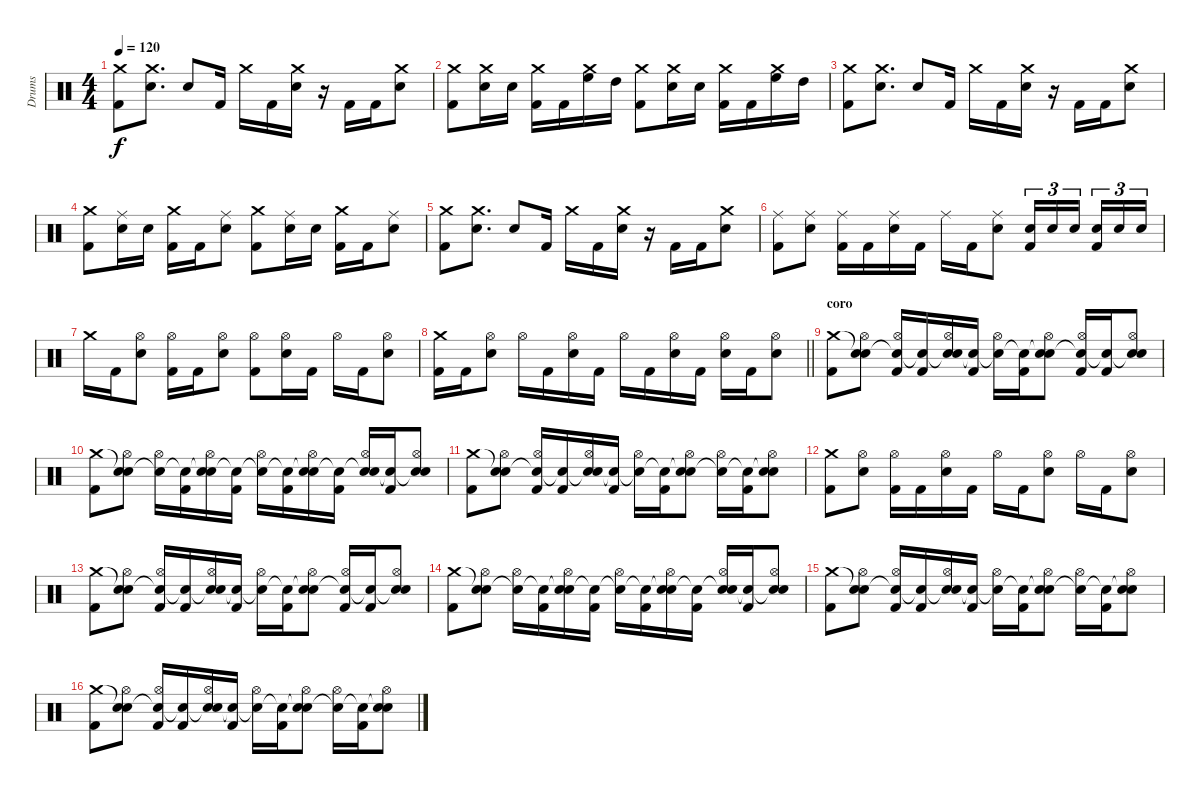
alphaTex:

\track ("Drums" "Drums") {instrument percussion}
\staff {score}
\articulation defaults
\ts (4 4)
\tempo 120
\clef neutral
\ks c
("Crash medium (hit)" "Kick (hit) 2").8{dy f} ("Crash medium (hit)" "Electric Snare (hit)").8{d} "Electric Snare (hit)".8 "Kick (hit) 2".16 "Crash medium (hit)".16 "Kick (hit) 2".16 ("Crash medium (hit)" "Electric Snare (hit)").16 r.16 "Kick (hit) 2".16 "Kick (hit) 2".16 ("Crash medium (hit)" "Electric Snare (hit)").8 |
("Crash medium (hit)" "Kick (hit) 2").8 ("Crash medium (hit)" "Electric Snare (hit)").16 "Electric Snare (hit)".16 ("Crash medium (hit)" "Kick (hit) 2").16 "Kick (hit) 2".16 ("Crash medium (hit)" "High Floor Tom (hit)").16 "High Tom (hit)".16 ("Crash medium (hit)" "Kick (hit) 2").8 ("Crash medium (hit)" "Electric Snare (hit)").16 "Electric Snare (hit)".16 ("Crash medium (hit)" "Kick (hit) 2").16 "Kick (hit) 2".16 ("Crash medium (hit)" "High Floor Tom (hit)").16 "High Tom (hit)".16 |
("Crash medium (hit)" "Kick (hit) 2").8 ("Crash medium (hit)" "Electric Snare (hit)").8{d} "Electric Snare (hit)".8 "Kick (hit) 2".16 "Crash medium (hit)".16 "Kick (hit) 2".16 ("Crash medium (hit)" "Electric Snare (hit)").16 r.16 "Kick (hit) 2".16 "Kick (hit) 2".16 ("Crash medium (hit)" "Electric Snare (hit)").8 |
("Crash medium (hit)" "Kick (hit) 2").8 ("Ride (middle)" "Electric Snare (hit)").16 "Electric Snare (hit)".16 ("Crash medium (hit)" "Kick (hit) 2").16 "Kick (hit) 2".16 ("Ride (middle)" "Electric Snare (hit)").8 ("Crash medium (hit)" "Kick (hit) 2").8 ("Ride (middle)" "Electric Snare (hit)").16 "Electric Snare (hit)".16 ("Crash medium (hit)" "Kick (hit) 2").16 "Kick (hit) 2".16 ("Ride (middle)" "Electric Snare (hit)").8 |
("Crash medium (hit)" "Kick (hit) 2").8 ("Crash medium (hit)" "Electric Snare (hit)").8{d} "Electric Snare (hit)".8 "Kick (hit) 2".16 "Crash medium (hit)".16 "Kick (hit) 2".16 ("Crash medium (hit)" "Electric Snare (hit)").16 r.16 "Kick (hit) 2".16 "Kick (hit) 2".16 ("Crash medium (hit)" "Electric Snare (hit)").8 |
("Ride (middle)" "Kick (hit) 2").8 ("Ride (middle)" "Electric Snare (hit)").8 ("Ride (middle)" "Kick (hit) 2").16 "Kick (hit) 2".16 ("Ride (middle)" "Electric Snare (hit)").16 "Kick (hit) 2".16 "Ride (middle)".16 "Kick (hit) 2".16 ("Ride (middle)" "Electric Snare (hit)").8 ("Electric Snare (hit)" "Kick (hit) 2").16{tu (3 2)} "Electric Snare (hit)".16{tu (3 2)} "Electric Snare (hit)".16{tu (3 2)} ("Electric Snare (hit)" "Kick (hit) 2").16{tu (3 2)} "Electric Snare (hit)".16{tu (3 2)} "Electric Snare (hit)".16{tu (3 2)} |
"Crash medium (hit)".16 "Kick (hit) 2".16 ("Hi-Hat (open)" "Electric Snare (hit)").8 ("Hi-Hat (open)" "Kick (hit) 2").16 "Kick (hit) 2".16 ("Hi-Hat (open)" "Electric Snare (hit)").8 ("Hi-Hat (open)" "Kick (hit) 2").8 ("Hi-Hat (open)" "Electric Snare (hit)").16 "Kick (hit) 2".16 "Hi-Hat (open)".16 "Kick (hit) 2".16 ("Hi-Hat (open)" "Electric Snare (hit)").8 |
\barLineRight lightlight
("Crash medium (hit)" "Kick (hit) 2").16 "Kick (hit) 2".16 ("Hi-Hat (open)" "Electric Snare (hit)").8 "Hi-Hat (open)".16 "Kick (hit) 2".16 ("Hi-Hat (open)" "Electric Snare (hit)").16 "Kick (hit) 2".16 "Hi-Hat (open)".16 "Kick (hit) 2".16 ("Hi-Hat (open)" "Electric Snare (hit)").16 "Kick (hit) 2".16 ("Hi-Hat (open)" "Electric Snare (hit)").16 "Kick (hit) 2".16 ("Hi-Hat (open)" "Electric Snare (hit)").8 |
\section ("" "coro")
("Crash medium (hit)" "Kick (hit) 2").8 ("Snare (hit)"{t} "Hi-Hat (open)" "Electric Snare (hit)").8 ("Snare (hit)"{t} "Hi-Hat (open)" "Kick (hit) 2").16 ("Snare (hit)"{t} "Kick (hit) 2").16 ("Snare (hit)"{t} "Hi-Hat (open)" "Electric Snare (hit)").16 ("Snare (hit)"{t} "Kick (hit) 2").16 ("Snare (hit)"{t} "Hi-Hat (open)").16 ("Snare (hit)"{t} "Kick (hit) 2").16 ("Snare (hit)"{t} "Hi-Hat (open)" "Electric Snare (hit)").8 ("Snare (hit)"{t} "Hi-Hat (open)" "Kick (hit) 2").16 ("Snare (hit)"{t} "Kick (hit) 2").16 ("Snare (hit)"{t} "Hi-Hat (open)" "Electric Snare (hit)").8 |
("Crash medium (hit)" "Kick (hit) 2").8 ("Snare (hit)"{t} "Hi-Hat (open)" "Electric Snare (hit)").8 ("Snare (hit)"{t} "Hi-Hat (open)").16 ("Snare (hit)"{t} "Kick (hit) 2").16 ("Snare (hit)"{t} "Hi-Hat (open)" "Electric Snare (hit)").16 ("Snare (hit)"{t} "Kick (hit) 2").16 ("Snare (hit)"{t} "Hi-Hat (open)").16 ("Snare (hit)"{t} "Kick (hit) 2").16 ("Snare (hit)"{t} "Hi-Hat (open)" "Electric Snare (hit)").16 ("Snare (hit)"{t} "Kick (hit) 2").16 ("Snare (hit)"{t} "Hi-Hat (open)" "Electric Snare (hit)").16 ("Snare (hit)"{t} "Kick (hit) 2").16 ("Snare (hit)"{t} "Hi-Hat (open)" "Electric Snare (hit)").8 |
("Crash medium (hit)" "Kick (hit) 2").8 ("Snare (hit)"{t} "Hi-Hat (open)" "Electric Snare (hit)").8 ("Snare (hit)"{t} "Hi-Hat (open)" "Kick (hit) 2").16 ("Snare (hit)"{t} "Kick (hit) 2").16 ("Snare (hit)"{t} "Hi-Hat (open)" "Electric Snare (hit)").16 ("Snare (hit)"{t} "Kick (hit) 2").16 ("Snare (hit)"{t} "Hi-Hat (open)").16 ("Snare (hit)"{t} "Kick (hit) 2").16 ("Snare (hit)"{t} "Hi-Hat (open)" "Electric Snare (hit)").8 ("Snare (hit)"{t} "Hi-Hat (open)").16 ("Snare (hit)"{t} "Kick (hit) 2").16 ("Snare (hit)"{t} "Hi-Hat (open)" "Electric Snare (hit)").8 |
("Crash medium (hit)" "Kick (hit) 2").8 ("Hi-Hat (open)" "Electric Snare (hit)").8 ("Hi-Hat (open)" "Kick (hit) 2").16 "Kick (hit) 2".16 ("Hi-Hat (open)" "Electric Snare (hit)").16 "Kick (hit) 2".16 "Hi-Hat (open)".16 "Kick (hit) 2".16 ("Hi-Hat (open)" "Electric Snare (hit)").8 "Hi-Hat (open)".16 "Kick (hit) 2".16 ("Hi-Hat (open)" "Electric Snare (hit)").8 |
("Crash medium (hit)" "Kick (hit) 2").8 ("Snare (hit)"{t} "Hi-Hat (open)" "Electric Snare (hit)").8 ("Snare (hit)"{t} "Hi-Hat (open)" "Kick (hit) 2").16 ("Snare (hit)"{t} "Kick (hit) 2").16 ("Snare (hit)"{t} "Hi-Hat (open)" "Electric Snare (hit)").16 ("Snare (hit)"{t} "Kick (hit) 2").16 ("Snare (hit)"{t} "Hi-Hat (open)").16 ("Snare (hit)"{t} "Kick (hit) 2").16 ("Snare (hit)"{t} "Hi-Hat (open)" "Electric Snare (hit)").8 ("Snare (hit)"{t} "Hi-Hat (open)" "Kick (hit) 2").16 ("Snare (hit)"{t} "Kick (hit) 2").16 ("Snare (hit)"{t} "Hi-Hat (open)" "Electric Snare (hit)").8 |
("Crash medium (hit)" "Kick (hit) 2").8 ("Snare (hit)"{t} "Hi-Hat (open)" "Electric Snare (hit)").8 ("Snare (hit)"{t} "Hi-Hat (open)").16 ("Snare (hit)"{t} "Kick (hit) 2").16 ("Snare (hit)"{t} "Hi-Hat (open)" "Electric Snare (hit)").16 ("Snare (hit)"{t} "Kick (hit) 2").16 ("Snare (hit)"{t} "Hi-Hat (open)").16 ("Snare (hit)"{t} "Kick (hit) 2").16 ("Snare (hit)"{t} "Hi-Hat (open)" "Electric Snare (hit)").16 ("Snare (hit)"{t} "Kick (hit) 2").16 ("Snare (hit)"{t} "Hi-Hat (open)" "Electric Snare (hit)").16 ("Snare (hit)"{t} "Kick (hit) 2").16 ("Snare (hit)"{t} "Hi-Hat (open)" "Electric Snare (hit)").8 |
("Crash medium (hit)" "Kick (hit) 2").8 ("Snare (hit)"{t} "Hi-Hat (open)" "Electric Snare (hit)").8 ("Snare (hit)"{t} "Hi-Hat (open)" "Kick (hit) 2").16 ("Snare (hit)"{t} "Kick (hit) 2").16 ("Snare (hit)"{t} "Hi-Hat (open)" "Electric Snare (hit)").16 ("Snare (hit)"{t} "Kick (hit) 2").16 ("Snare (hit)"{t} "Hi-Hat (open)").16 ("Snare (hit)"{t} "Kick (hit) 2").16 ("Snare (hit)"{t} "Hi-Hat (open)" "Electric Snare (hit)").8 ("Snare (hit)"{t} "Hi-Hat (open)").16 ("Snare (hit)"{t} "Kick (hit) 2").16 ("Snare (hit)"{t} "Hi-Hat (open)" "Electric Snare (hit)").8 |
("Crash medium (hit)" "Kick (hit) 2").8 ("Snare (hit)"{t} "Hi-Hat (open)" "Electric Snare (hit)").8 ("Snare (hit)"{t} "Hi-Hat (open)" "Kick (hit) 2").16 ("Snare (hit)"{t} "Kick (hit) 2").16 ("Snare (hit)"{t} "Hi-Hat (open)" "Electric Snare (hit)").16 ("Snare (hit)"{t} "Kick (hit) 2").16 ("Snare (hit)"{t} "Hi-Hat (open)").16 ("Snare (hit)"{t} "Kick (hit) 2").16 ("Snare (hit)"{t} "Hi-Hat (open)" "Electric Snare (hit)").8 ("Snare (hit)"{t} "Hi-Hat (open)").16 ("Snare (hit)"{t} "Kick (hit) 2").16 ("Snare (hit)"{t} "Hi-Hat (open)" "Electric Snare (hit)").8
